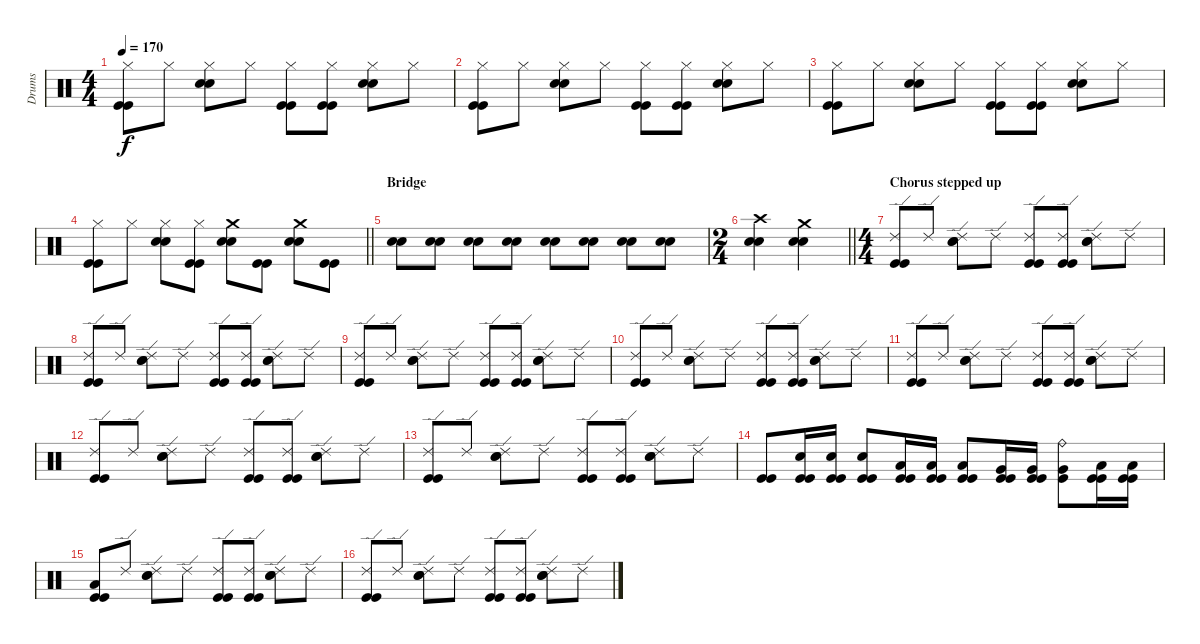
\track ("Drums" "Drums") {instrument percussion}
\staff {score}
\articulation defaults
\ts (4 4)
\tempo 170
\clef neutral
\ks c
("Hi-Hat (closed)" "Kick (hit)" "Kick (hit)").8{dy f} "Hi-Hat (closed)".8 ("Hi-Hat (closed)" "Snare (hit) 2" "Snare (hit) 2").8 "Hi-Hat (closed)".8 ("Hi-Hat (closed)" "Kick (hit)" "Kick (hit)").8 ("Hi-Hat (closed)" "Kick (hit)" "Kick (hit)").8 ("Hi-Hat (closed)" "Snare (hit) 2" "Snare (hit) 2").8 "Hi-Hat (closed)".8 |
("Hi-Hat (closed)" "Kick (hit)" "Kick (hit)").8 "Hi-Hat (closed)".8 ("Hi-Hat (closed)" "Snare (hit) 2" "Snare (hit) 2").8 "Hi-Hat (closed)".8 ("Hi-Hat (closed)" "Kick (hit)" "Kick (hit)").8 ("Hi-Hat (closed)" "Kick (hit)" "Kick (hit)").8 ("Hi-Hat (closed)" "Snare (hit) 2" "Snare (hit) 2").8 "Hi-Hat (closed)".8 |
("Hi-Hat (closed)" "Kick (hit)" "Kick (hit)").8 "Hi-Hat (closed)".8 ("Hi-Hat (closed)" "Snare (hit) 2" "Snare (hit) 2").8 "Hi-Hat (closed)".8 ("Hi-Hat (closed)" "Kick (hit)" "Kick (hit)").8 ("Hi-Hat (closed)" "Kick (hit)" "Kick (hit)").8 ("Hi-Hat (closed)" "Snare (hit) 2" "Snare (hit) 2").8 "Hi-Hat (closed)".8 |
\barLineRight lightlight
("Hi-Hat (closed)" "Kick (hit)" "Kick (hit)").8 "Hi-Hat (closed)".8 ("Hi-Hat (closed)" "Snare (hit) 2" "Snare (hit) 2").8 ("Hi-Hat (closed)" "Kick (hit)" "Kick (hit)").8 ("Crash medium (hit)" "Snare (hit) 2" "Snare (hit) 2").8 ("Kick (hit)" "Kick (hit)").8 ("Crash medium (hit)" "Snare (hit) 2" "Snare (hit) 2").8 ("Kick (hit)" "Kick (hit)").8 |
\section ("" "Bridge")
("Snare (hit) 2" "Snare (hit) 2").8 ("Snare (hit) 2" "Snare (hit) 2").8 ("Snare (hit) 2" "Snare (hit) 2").8 ("Snare (hit) 2" "Snare (hit) 2").8 ("Snare (hit) 2" "Snare (hit) 2").8 ("Snare (hit) 2" "Snare (hit) 2").8 ("Snare (hit) 2" "Snare (hit) 2").8 ("Snare (hit) 2" "Snare (hit) 2").8 |
\ts (2 4)
\barLineRight lightlight
("Crash high (hit)" "Snare (hit) 2" "Snare (hit) 2").4 ("Crash medium (hit)" "Snare (hit) 2" "Snare (hit) 2").4 |
\ts (4 4)
\section ("" "Chorus stepped up")
("Ride (edge) 2" "Kick (hit)" "Kick (hit)").8 "Ride (edge) 2".8 ("Ride (edge) 2" "Snare (hit) 2" "Snare (hit) 2").8 "Ride (edge) 2".8 ("Ride (edge) 2" "Kick (hit)" "Kick (hit)").8 ("Ride (edge) 2" "Kick (hit)" "Kick (hit)").8 ("Ride (edge) 2" "Snare (hit) 2" "Snare (hit) 2").8 "Ride (edge) 2".8 |
("Ride (edge) 2" "Kick (hit)" "Kick (hit)").8 "Ride (edge) 2".8 ("Ride (edge) 2" "Snare (hit) 2" "Snare (hit) 2").8 "Ride (edge) 2".8 ("Ride (edge) 2" "Kick (hit)" "Kick (hit)").8 ("Ride (edge) 2" "Kick (hit)" "Kick (hit)").8 ("Ride (edge) 2" "Snare (hit) 2" "Snare (hit) 2").8 "Ride (edge) 2".8 |
("Ride (edge) 2" "Kick (hit)" "Kick (hit)").8 "Ride (edge) 2".8 ("Ride (edge) 2" "Snare (hit) 2" "Snare (hit) 2").8 "Ride (edge) 2".8 ("Ride (edge) 2" "Kick (hit)" "Kick (hit)").8 ("Ride (edge) 2" "Kick (hit)" "Kick (hit)").8 ("Ride (edge) 2" "Snare (hit) 2" "Snare (hit) 2").8 "Ride (edge) 2".8 |
("Ride (edge) 2" "Kick (hit)" "Kick (hit)").8 "Ride (edge) 2".8 ("Ride (edge) 2" "Snare (hit) 2" "Snare (hit) 2").8 "Ride (edge) 2".8 ("Ride (edge) 2" "Kick (hit)" "Kick (hit)").8 ("Ride (edge) 2" "Kick (hit)" "Kick (hit)").8 ("Ride (edge) 2" "Snare (hit) 2" "Snare (hit) 2").8 "Ride (edge) 2".8 |
("Ride (edge) 2" "Kick (hit)" "Kick (hit)").8 "Ride (edge) 2".8 ("Ride (edge) 2" "Snare (hit) 2" "Snare (hit) 2").8 "Ride (edge) 2".8 ("Ride (edge) 2" "Kick (hit)" "Kick (hit)").8 ("Ride (edge) 2" "Kick (hit)" "Kick (hit)").8 ("Ride (edge) 2" "Snare (hit) 2" "Snare (hit) 2").8 "Ride (edge) 2".8 |
("Ride (edge) 2" "Kick (hit)" "Kick (hit)").8 "Ride (edge) 2".8 ("Ride (edge) 2" "Snare (hit) 2" "Snare (hit) 2").8 "Ride (edge) 2".8 ("Ride (edge) 2" "Kick (hit)" "Kick (hit)").8 ("Ride (edge) 2" "Kick (hit)" "Kick (hit)").8 ("Ride (edge) 2" "Snare (hit) 2" "Snare (hit) 2").8 "Ride (edge) 2".8 |
("Ride (edge) 2" "Kick (hit)" "Kick (hit)").8 "Ride (edge) 2".8 ("Ride (edge) 2" "Snare (hit) 2" "Snare (hit) 2").8 "Ride (edge) 2".8 ("Ride (edge) 2" "Kick (hit)" "Kick (hit)").8 ("Ride (edge) 2" "Kick (hit)" "Kick (hit)").8 ("Ride (edge) 2" "Snare (hit) 2" "Snare (hit) 2").8 "Ride (edge) 2".8 |
("Kick (hit)" "Kick (hit)").8 ("Snare (hit) 2" "Kick (hit)" "Kick (hit)").16 ("Snare (hit) 2" "Kick (hit)" "Kick (hit)").16 ("Snare (hit) 2" "Kick (hit)" "Kick (hit)").8 ("Low Tom (hit)" "Kick (hit)" "Kick (hit)").16 ("Low Tom (hit)" "Kick (hit)" "Kick (hit)").16 ("Low Tom (hit)" "Kick (hit)" "Kick (hit)").8 ("Very Low Tom (hit)" "Kick (hit)" "Kick (hit)").16 ("Very Low Tom (hit)" "Kick (hit)" "Kick (hit)").16 ("Very Low Tom (hit)" "Kick (hit)" "Ride (bell)").8 ("Low Floor Tom (hit)" "Kick (hit)" "Kick (hit)").16 ("Low Floor Tom (hit)" "Kick (hit)" "Kick (hit)").16 |
("Low Floor Tom (hit)" "Kick (hit)" "Kick (hit)").8 "Ride (edge) 2".8 ("Ride (edge) 2" "Snare (hit) 2" "Snare (hit) 2").8 "Ride (edge) 2".8 ("Ride (edge) 2" "Kick (hit)" "Kick (hit)").8 ("Ride (edge) 2" "Kick (hit)" "Kick (hit)").8 ("Ride (edge) 2" "Snare (hit) 2" "Snare (hit) 2").8 "Ride (edge) 2".8 |
("Ride (edge) 2" "Kick (hit)" "Kick (hit)").8 "Ride (edge) 2".8 ("Ride (edge) 2" "Snare (hit) 2" "Snare (hit) 2").8 "Ride (edge) 2".8 ("Ride (edge) 2" "Kick (hit)" "Kick (hit)").8 ("Ride (edge) 2" "Kick (hit)" "Kick (hit)").8 ("Ride (edge) 2" "Snare (hit) 2" "Snare (hit) 2").8 "Ride (edge) 2".8
